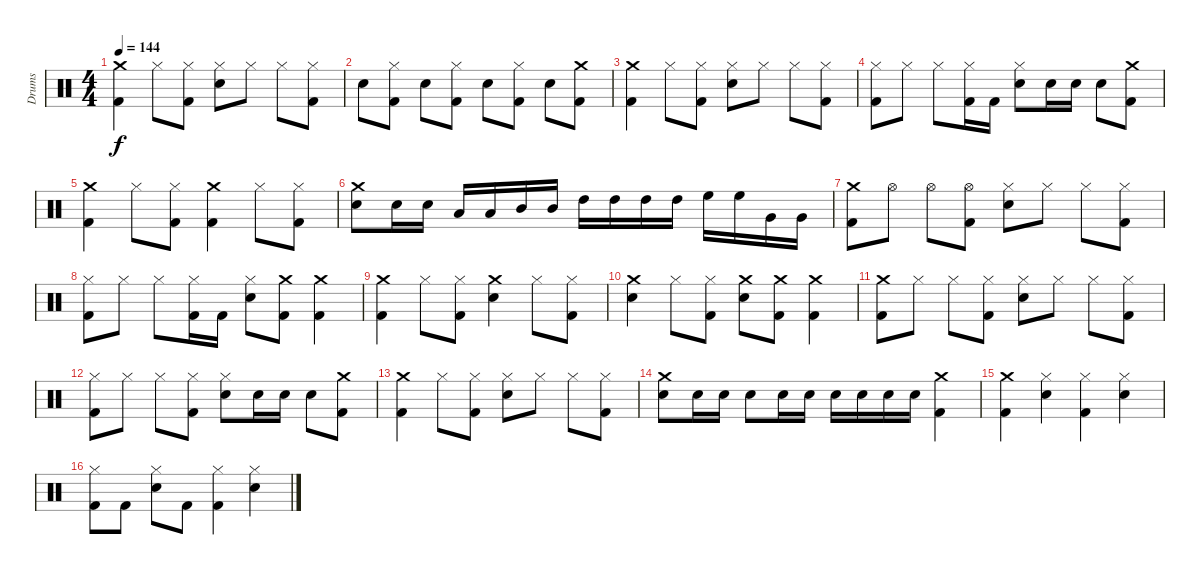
\track ("Drums" "Drums") {instrument percussion}
\staff {score}
\articulation defaults
\ts (4 4)
\tempo 144
\clef neutral
\ks c
("Kick (hit) 2" "Crash medium (hit)").4{dy f} "Hi-Hat (closed)".8 ("Kick (hit) 2" "Hi-Hat (closed)").8 ("Snare (hit) 2" "Hi-Hat (closed)").8 "Hi-Hat (closed)".8 "Hi-Hat (closed)".8 ("Kick (hit) 2" "Hi-Hat (closed)").8 |
"Snare (hit) 2".8 ("Kick (hit) 2" "Hi-Hat (closed)").8 "Snare (hit) 2".8 ("Kick (hit) 2" "Hi-Hat (closed)").8 "Snare (hit) 2".8 ("Hi-Hat (closed)" "Kick (hit) 2").8 "Snare (hit) 2".8 ("Crash medium (hit)" "Kick (hit) 2").8 |
("Kick (hit) 2" "Crash medium (hit)").4 "Hi-Hat (closed)".8 ("Kick (hit) 2" "Hi-Hat (closed)").8 ("Snare (hit) 2" "Hi-Hat (closed)").8 "Hi-Hat (closed)".8 "Hi-Hat (closed)".8 ("Kick (hit) 2" "Hi-Hat (closed)").8 |
("Kick (hit) 2" "Hi-Hat (closed)").8 "Hi-Hat (closed)".8 "Hi-Hat (closed)".8 ("Kick (hit) 2" "Hi-Hat (closed)").16 "Kick (hit) 2".16 ("Snare (hit) 2" "Hi-Hat (closed)").8 "Snare (hit) 2".16 "Snare (hit) 2".16 "Snare (hit) 2".8 ("Crash medium (hit)" "Kick (hit) 2").8 |
("Kick (hit) 2" "Crash medium (hit)").4 "Hi-Hat (closed)".8 ("Kick (hit) 2" "Hi-Hat (closed)").8 ("Kick (hit) 2" "Crash medium (hit)").4 "Hi-Hat (closed)".8 ("Kick (hit) 2" "Hi-Hat (closed)").8 |
("Snare (hit) 2" "Crash medium (hit)").8 "Snare (hit) 2".16 "Snare (hit) 2".16 "Low Tom (hit)".16 "Low Tom (hit)".16 "Mid Tom (hit)".16 "Mid Tom (hit)".16 "High Tom (hit)".16 "High Tom (hit)".16 "High Tom (hit)".16 "High Tom (hit)".16 "High Floor Tom (hit)".16 "High Floor Tom (hit)".16 "Very Low Tom (hit)".16 "Very Low Tom (hit)".16 |
("Kick (hit) 2" "Crash medium (hit)").8 "Hi-Hat (open)".8 "Hi-Hat (open)".8 ("Kick (hit) 2" "Hi-Hat (open)").8 ("Snare (hit) 2" "Hi-Hat (closed)").8 "Hi-Hat (closed)".8 "Hi-Hat (closed)".8 ("Kick (hit) 2" "Hi-Hat (closed)").8 |
("Kick (hit) 2" "Hi-Hat (closed)").8 "Hi-Hat (closed)".8 "Hi-Hat (closed)".8 ("Kick (hit) 2" "Hi-Hat (closed)").16 "Kick (hit) 2".16 ("Snare (hit) 2" "Hi-Hat (closed)").8 ("Kick (hit) 2" "Crash medium (hit)").8 ("Kick (hit) 2" "Crash medium (hit)").4 |
("Kick (hit) 2" "Crash medium (hit)").4 "Hi-Hat (closed)".8 ("Kick (hit) 2" "Hi-Hat (closed)").8 ("Snare (hit) 2" "Crash medium (hit)").4 "Hi-Hat (closed)".8 ("Kick (hit) 2" "Hi-Hat (closed)").8 |
("Snare (hit) 2" "Crash medium (hit)").4 "Hi-Hat (closed)".8 ("Kick (hit) 2" "Hi-Hat (closed)").8 ("Snare (hit) 2" "Crash medium (hit)").8 ("Kick (hit) 2" "Crash medium (hit)").8 ("Crash medium (hit)" "Kick (hit) 2").4 |
("Crash medium (hit)" "Kick (hit) 2").8 "Hi-Hat (closed)".8 "Hi-Hat (closed)".8 ("Kick (hit) 2" "Hi-Hat (closed)").8 ("Snare (hit) 2" "Hi-Hat (closed)").8 "Hi-Hat (closed)".8 "Hi-Hat (closed)".8 ("Kick (hit) 2" "Hi-Hat (closed)").8 |
("Hi-Hat (closed)" "Kick (hit) 2").8 "Hi-Hat (closed)".8 "Hi-Hat (closed)".8 ("Kick (hit) 2" "Hi-Hat (closed)").8 ("Snare (hit) 2" "Hi-Hat (closed)").8 "Snare (hit) 2".16 "Snare (hit) 2".16 "Snare (hit) 2".8 ("Kick (hit) 2" "Crash medium (hit)").8 |
("Kick (hit) 2" "Crash medium (hit)").4 "Hi-Hat (closed)".8 ("Hi-Hat (closed)" "Kick (hit) 2").8 ("Hi-Hat (closed)" "Snare (hit) 2").8 "Hi-Hat (closed)".8 "Hi-Hat (closed)".8 ("Hi-Hat (closed)" "Kick (hit) 2").8 |
("Snare (hit) 2" "Crash medium (hit)").8 "Snare (hit) 2".16 "Snare (hit) 2".16 "Snare (hit) 2".8 "Snare (hit) 2".16 "Snare (hit) 2".16 "Snare (hit) 2".16 "Snare (hit) 2".16 "Snare (hit) 2".16 "Snare (hit) 2".16 ("Crash medium (hit)" "Kick (hit) 2").4 |
("Kick (hit) 2" "Crash medium (hit)").4 ("Hi-Hat (closed)" "Snare (hit) 2").4 ("Kick (hit) 2" "Hi-Hat (closed)").4 ("Snare (hit) 2" "Hi-Hat (closed)").4 |
("Kick (hit) 2" "Hi-Hat (closed)").8 "Kick (hit) 2".8 ("Snare (hit) 2" "Hi-Hat (closed)").8 "Kick (hit) 2".8 ("Kick (hit) 2" "Hi-Hat (closed)").4 ("Snare (hit) 2" "Hi-Hat (closed)").4
